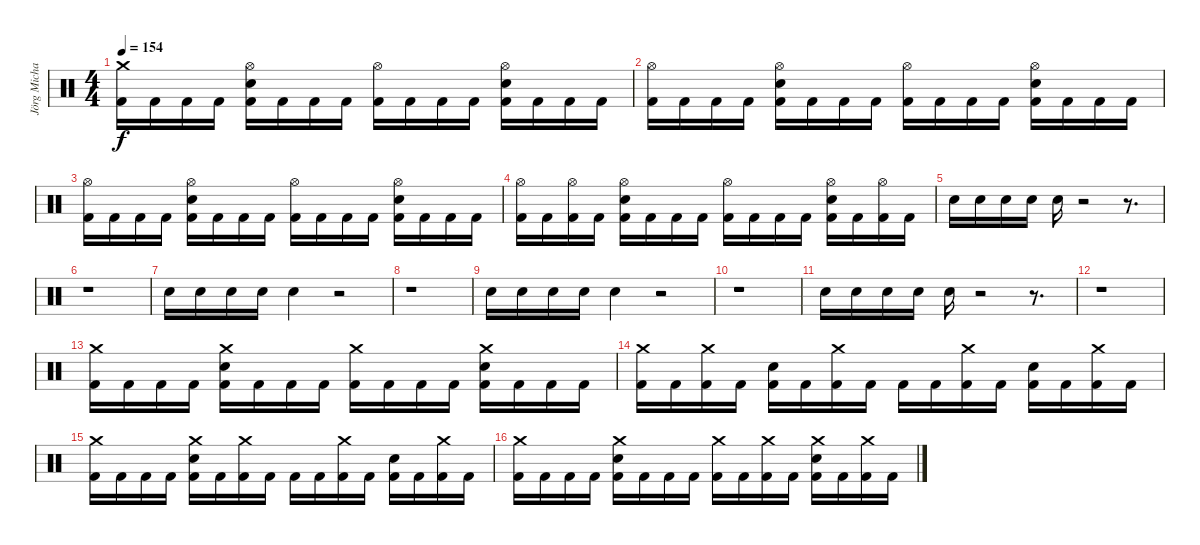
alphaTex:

\track ("Jörg Michael" "Jörg Micha") {instrument percussion}
\staff {score}
\articulation defaults
\ts (4 4)
\tempo 154
\clef neutral
\ks c
("Crash medium (hit)" "Kick (hit) 2").16{dy f} "Kick (hit) 2".16 "Kick (hit) 2".16 "Kick (hit) 2".16 ("Snare (hit) 2" "Hi-Hat (open)" "Kick (hit) 2").16 "Kick (hit) 2".16 "Kick (hit) 2".16 "Kick (hit) 2".16 ("Hi-Hat (open)" "Kick (hit) 2").16 "Kick (hit) 2".16 "Kick (hit) 2".16 "Kick (hit) 2".16 ("Snare (hit) 2" "Hi-Hat (open)" "Kick (hit) 2").16 "Kick (hit) 2".16 "Kick (hit) 2".16 "Kick (hit) 2".16 |
("Hi-Hat (open)" "Kick (hit) 2").16 "Kick (hit) 2".16 "Kick (hit) 2".16 "Kick (hit) 2".16 ("Snare (hit) 2" "Hi-Hat (open)" "Kick (hit) 2").16 "Kick (hit) 2".16 "Kick (hit) 2".16 "Kick (hit) 2".16 ("Hi-Hat (open)" "Kick (hit) 2").16 "Kick (hit) 2".16 "Kick (hit) 2".16 "Kick (hit) 2".16 ("Snare (hit) 2" "Hi-Hat (open)" "Kick (hit) 2").16 "Kick (hit) 2".16 "Kick (hit) 2".16 "Kick (hit) 2".16 |
("Hi-Hat (open)" "Kick (hit) 2").16 "Kick (hit) 2".16 "Kick (hit) 2".16 "Kick (hit) 2".16 ("Snare (hit) 2" "Hi-Hat (open)" "Kick (hit) 2").16 "Kick (hit) 2".16 "Kick (hit) 2".16 "Kick (hit) 2".16 ("Hi-Hat (open)" "Kick (hit) 2").16 "Kick (hit) 2".16 "Kick (hit) 2".16 "Kick (hit) 2".16 ("Snare (hit) 2" "Hi-Hat (open)" "Kick (hit) 2").16 "Kick (hit) 2".16 "Kick (hit) 2".16 "Kick (hit) 2".16 |
("Hi-Hat (open)" "Kick (hit) 2").16 "Kick (hit) 2".16 ("Hi-Hat (open)" "Kick (hit) 2").16 "Kick (hit) 2".16 ("Snare (hit) 2" "Hi-Hat (open)" "Kick (hit) 2").16 "Kick (hit) 2".16 "Kick (hit) 2".16 "Kick (hit) 2".16 ("Hi-Hat (open)" "Kick (hit) 2").16 "Kick (hit) 2".16 "Kick (hit) 2".16 "Kick (hit) 2".16 ("Snare (hit) 2" "Hi-Hat (open)" "Kick (hit) 2").16 "Kick (hit) 2".16 ("Hi-Hat (open)" "Kick (hit) 2").16 "Kick (hit) 2".16 |
"Snare (hit) 2".16 "Snare (hit) 2".16 "Snare (hit) 2".16 "Snare (hit) 2".16 "Snare (hit) 2".16 r.2 r.8{d} |
r.1 |
"Snare (hit) 2".16 "Snare (hit) 2".16 "Snare (hit) 2".16 "Snare (hit) 2".16 "Snare (hit) 2".4 r.2 |
r.1 |
"Snare (hit) 2".16 "Snare (hit) 2".16 "Snare (hit) 2".16 "Snare (hit) 2".16 "Snare (hit) 2".4 r.2 |
r.1 |
"Snare (hit) 2".16 "Snare (hit) 2".16 "Snare (hit) 2".16 "Snare (hit) 2".16 "Snare (hit) 2".16 r.2 r.8{d} |
r.1 |
("Kick (hit) 2" "Crash medium (hit)").16 "Kick (hit) 2".16 "Kick (hit) 2".16 "Kick (hit) 2".16 ("Kick (hit) 2" "Snare (hit) 2" "Crash medium (hit)").16 "Kick (hit) 2".16 "Kick (hit) 2".16 "Kick (hit) 2".16 ("Kick (hit) 2" "Crash medium (hit)").16 "Kick (hit) 2".16 "Kick (hit) 2".16 "Kick (hit) 2".16 ("Kick (hit) 2" "Snare (hit) 2" "Crash medium (hit)").16 "Kick (hit) 2".16 "Kick (hit) 2".16 "Kick (hit) 2".16 |
("Crash medium (hit)" "Kick (hit) 2").16 "Kick (hit) 2".16 ("Crash medium (hit)" "Kick (hit) 2").16 "Kick (hit) 2".16 ("Kick (hit) 2" "Snare (hit) 2").16 "Kick (hit) 2".16 ("Crash medium (hit)" "Kick (hit) 2").16 "Kick (hit) 2".16 "Kick (hit) 2".16 "Kick (hit) 2".16 ("Crash medium (hit)" "Kick (hit) 2").16 "Kick (hit) 2".16 ("Kick (hit) 2" "Snare (hit) 2").16 "Kick (hit) 2".16 ("Crash medium (hit)" "Kick (hit) 2").16 "Kick (hit) 2".16 |
("Crash medium (hit)" "Kick (hit) 2").16 "Kick (hit) 2".16 "Kick (hit) 2".16 "Kick (hit) 2".16 ("Crash medium (hit)" "Kick (hit) 2" "Snare (hit) 2").16 "Kick (hit) 2".16 ("Crash medium (hit)" "Kick (hit) 2").16 "Kick (hit) 2".16 "Kick (hit) 2".16 "Kick (hit) 2".16 ("Crash medium (hit)" "Kick (hit) 2").16 "Kick (hit) 2".16 ("Kick (hit) 2" "Snare (hit) 2").16 "Kick (hit) 2".16 ("Crash medium (hit)" "Kick (hit) 2").16 "Kick (hit) 2".16 |
("Kick (hit) 2" "Crash medium (hit)").16 "Kick (hit) 2".16 "Kick (hit) 2".16 "Kick (hit) 2".16 ("Kick (hit) 2" "Snare (hit) 2" "Crash medium (hit)").16 "Kick (hit) 2".16 "Kick (hit) 2".16 "Kick (hit) 2".16 ("Kick (hit) 2" "Crash medium (hit)").16 "Kick (hit) 2".16 ("Crash medium (hit)" "Kick (hit) 2").16 "Kick (hit) 2".16 ("Kick (hit) 2" "Snare (hit) 2" "Crash medium (hit)").16 "Kick (hit) 2".16 ("Crash medium (hit)" "Kick (hit) 2").16 "Kick (hit) 2".16
